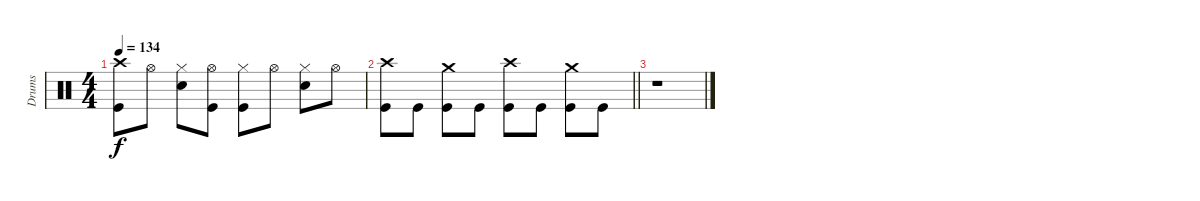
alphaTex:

\track ("Drums" "Drums") {instrument percussion}
\staff {score}
\articulation defaults
\ts (4 4)
\tempo 134
\clef neutral
\ks c
("Crash high (hit)" "Kick (hit)").8{dy f} "Hi-Hat (open)".8 ("Hi-Hat (closed)" "Snare (hit) 2").8 ("Hi-Hat (open)" "Kick (hit)").8 ("Hi-Hat (closed)" "Kick (hit)").8 "Hi-Hat (open)".8 ("Hi-Hat (closed)" "Snare (hit) 2").8 "Hi-Hat (open)".8 |
\barLineRight lightlight
("Crash high (hit)" "Kick (hit)").8 "Kick (hit)".8 ("Crash medium (hit)" "Kick (hit)").8 "Kick (hit)".8 ("Crash high (hit)" "Kick (hit)").8 "Kick (hit)".8 ("Crash medium (hit)" "Kick (hit)").8 "Kick (hit)".8 |
r.1
